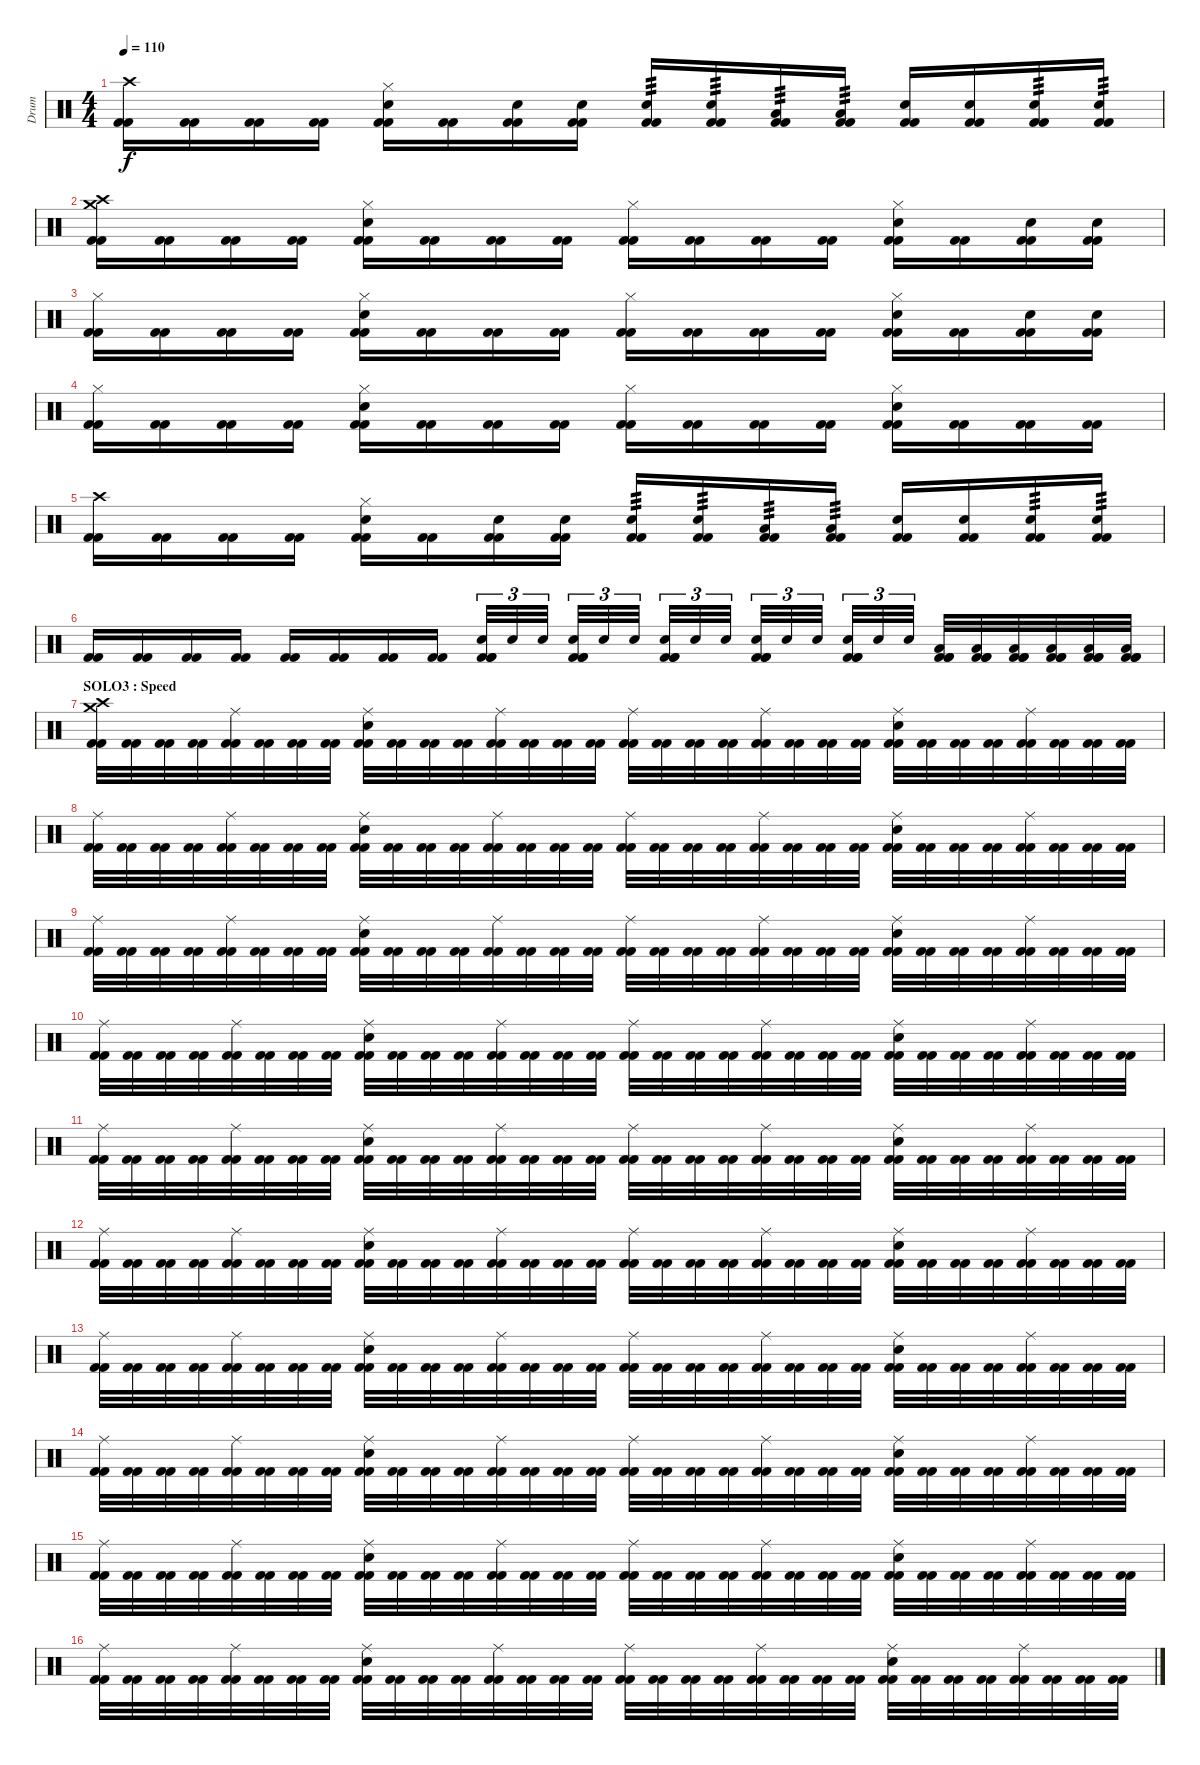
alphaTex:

\track ("Drum" "Drum") {instrument percussion}
\staff {score}
\articulation defaults
\ts (4 4)
\tempo 110
\clef neutral
\ks c
("Kick (hit) 2" "Kick (hit) 2" "Crash high (hit)").16{dy f} ("Kick (hit) 2" "Kick (hit) 2").16 ("Kick (hit) 2" "Kick (hit) 2").16 ("Kick (hit) 2" "Kick (hit) 2").16 ("Kick (hit) 2" "Kick (hit) 2" "Electric Snare (hit)" "Hi-Hat (closed)").16 ("Kick (hit) 2" "Kick (hit) 2").16 ("Kick (hit) 2" "Kick (hit) 2" "Electric Snare (hit)").16 ("Kick (hit) 2" "Kick (hit) 2" "Electric Snare (hit)").16 ("Kick (hit) 2" "Kick (hit) 2" "Electric Snare (hit)").16{tp 3} ("Kick (hit) 2" "Kick (hit) 2" "Electric Snare (hit)").16{tp 3} ("Kick (hit) 2" "Kick (hit) 2" "Low Floor Tom (hit)").16{tp 3} ("Kick (hit) 2" "Kick (hit) 2" "Low Floor Tom (hit)").16{tp 3} ("Kick (hit) 2" "Kick (hit) 2" "Electric Snare (hit)").16 ("Kick (hit) 2" "Kick (hit) 2" "Electric Snare (hit)").16 ("Kick (hit) 2" "Kick (hit) 2" "Electric Snare (hit)").16{tp 3} ("Kick (hit) 2" "Kick (hit) 2" "Electric Snare (hit)").16{tp 3} |
("Kick (hit) 2" "Kick (hit) 2" "Crash high (hit)" "Crash medium (hit)").16 ("Kick (hit) 2" "Kick (hit) 2").16 ("Kick (hit) 2" "Kick (hit) 2").16 ("Kick (hit) 2" "Kick (hit) 2").16 ("Kick (hit) 2" "Kick (hit) 2" "Electric Snare (hit)" "Hi-Hat (closed)").16 ("Kick (hit) 2" "Kick (hit) 2").16 ("Kick (hit) 2" "Kick (hit) 2").16 ("Kick (hit) 2" "Kick (hit) 2").16 ("Kick (hit) 2" "Kick (hit) 2" "Hi-Hat (closed)").16 ("Kick (hit) 2" "Kick (hit) 2").16 ("Kick (hit) 2" "Kick (hit) 2").16 ("Kick (hit) 2" "Kick (hit) 2").16 ("Kick (hit) 2" "Kick (hit) 2" "Electric Snare (hit)" "Hi-Hat (closed)").16 ("Kick (hit) 2" "Kick (hit) 2").16 ("Kick (hit) 2" "Kick (hit) 2" "Electric Snare (hit)").16 ("Kick (hit) 2" "Kick (hit) 2" "Electric Snare (hit)").16 |
("Kick (hit) 2" "Kick (hit) 2" "Hi-Hat (closed)").16 ("Kick (hit) 2" "Kick (hit) 2").16 ("Kick (hit) 2" "Kick (hit) 2").16 ("Kick (hit) 2" "Kick (hit) 2").16 ("Kick (hit) 2" "Kick (hit) 2" "Electric Snare (hit)" "Hi-Hat (closed)").16 ("Kick (hit) 2" "Kick (hit) 2").16 ("Kick (hit) 2" "Kick (hit) 2").16 ("Kick (hit) 2" "Kick (hit) 2").16 ("Kick (hit) 2" "Kick (hit) 2" "Hi-Hat (closed)").16 ("Kick (hit) 2" "Kick (hit) 2").16 ("Kick (hit) 2" "Kick (hit) 2").16 ("Kick (hit) 2" "Kick (hit) 2").16 ("Kick (hit) 2" "Kick (hit) 2" "Electric Snare (hit)" "Hi-Hat (closed)").16 ("Kick (hit) 2" "Kick (hit) 2").16 ("Kick (hit) 2" "Kick (hit) 2" "Electric Snare (hit)").16 ("Kick (hit) 2" "Kick (hit) 2" "Electric Snare (hit)").16 |
("Kick (hit) 2" "Kick (hit) 2" "Hi-Hat (closed)").16 ("Kick (hit) 2" "Kick (hit) 2").16 ("Kick (hit) 2" "Kick (hit) 2").16 ("Kick (hit) 2" "Kick (hit) 2").16 ("Kick (hit) 2" "Kick (hit) 2" "Electric Snare (hit)" "Hi-Hat (closed)").16 ("Kick (hit) 2" "Kick (hit) 2").16 ("Kick (hit) 2" "Kick (hit) 2").16 ("Kick (hit) 2" "Kick (hit) 2").16 ("Kick (hit) 2" "Kick (hit) 2" "Hi-Hat (closed)").16 ("Kick (hit) 2" "Kick (hit) 2").16 ("Kick (hit) 2" "Kick (hit) 2").16 ("Kick (hit) 2" "Kick (hit) 2").16 ("Kick (hit) 2" "Kick (hit) 2" "Electric Snare (hit)" "Hi-Hat (closed)").16 ("Kick (hit) 2" "Kick (hit) 2").16 ("Kick (hit) 2" "Kick (hit) 2").16 ("Kick (hit) 2" "Kick (hit) 2").16 |
("Kick (hit) 2" "Kick (hit) 2" "Crash high (hit)").16 ("Kick (hit) 2" "Kick (hit) 2").16 ("Kick (hit) 2" "Kick (hit) 2").16 ("Kick (hit) 2" "Kick (hit) 2").16 ("Kick (hit) 2" "Kick (hit) 2" "Electric Snare (hit)" "Hi-Hat (closed)").16 ("Kick (hit) 2" "Kick (hit) 2").16 ("Kick (hit) 2" "Kick (hit) 2" "Electric Snare (hit)").16 ("Kick (hit) 2" "Kick (hit) 2" "Electric Snare (hit)").16 ("Kick (hit) 2" "Kick (hit) 2" "Electric Snare (hit)").16{tp 3} ("Kick (hit) 2" "Kick (hit) 2" "Electric Snare (hit)").16{tp 3} ("Kick (hit) 2" "Kick (hit) 2" "Low Floor Tom (hit)").16{tp 3} ("Kick (hit) 2" "Kick (hit) 2" "Low Floor Tom (hit)").16{tp 3} ("Kick (hit) 2" "Kick (hit) 2" "Electric Snare (hit)").16 ("Kick (hit) 2" "Kick (hit) 2" "Electric Snare (hit)").16 ("Kick (hit) 2" "Kick (hit) 2" "Electric Snare (hit)").16{tp 3} ("Kick (hit) 2" "Kick (hit) 2" "Electric Snare (hit)").16{tp 3} |
("Kick (hit) 2" "Kick (hit) 2").16 ("Kick (hit) 2" "Kick (hit) 2").16 ("Kick (hit) 2" "Kick (hit) 2").16 ("Kick (hit) 2" "Kick (hit) 2").16 ("Kick (hit) 2" "Kick (hit) 2").16 ("Kick (hit) 2" "Kick (hit) 2").16 ("Kick (hit) 2" "Kick (hit) 2").16 ("Kick (hit) 2" "Kick (hit) 2").16 ("Kick (hit) 2" "Kick (hit) 2" "Kick (hit) 2" "Electric Snare (hit)").32{tu (3 2)} "Electric Snare (hit)".32{tu (3 2)} "Electric Snare (hit)".32{tu (3 2)} ("Kick (hit) 2" "Kick (hit) 2" "Kick (hit) 2" "Electric Snare (hit)").32{tu (3 2)} "Electric Snare (hit)".32{tu (3 2)} "Electric Snare (hit)".32{tu (3 2)} ("Kick (hit) 2" "Kick (hit) 2" "Kick (hit) 2" "Electric Snare (hit)").32{tu (3 2)} "Electric Snare (hit)".32{tu (3 2)} "Electric Snare (hit)".32{tu (3 2)} ("Kick (hit) 2" "Kick (hit) 2" "Kick (hit) 2" "Electric Snare (hit)").32{tu (3 2)} "Electric Snare (hit)".32{tu (3 2)} "Electric Snare (hit)".32{tu (3 2)} ("Kick (hit) 2" "Kick (hit) 2" "Kick (hit) 2" "Electric Snare (hit)").32{tu (3 2)} "Electric Snare (hit)".32{tu (3 2)} "Electric Snare (hit)".32{tu (3 2)} ("Kick (hit) 2" "Kick (hit) 2" "Kick (hit) 2" "Low Tom (hit)").32 ("Kick (hit) 2" "Kick (hit) 2" "Kick (hit) 2" "Low Tom (hit)").32 ("Kick (hit) 2" "Kick (hit) 2" "Kick (hit) 2" "Low Floor Tom (hit)").32 ("Kick (hit) 2" "Kick (hit) 2" "Kick (hit) 2" "Low Floor Tom (hit)").32 ("Kick (hit) 2" "Kick (hit) 2" "Kick (hit) 2" "Low Floor Tom (hit)").32 ("Kick (hit) 2" "Kick (hit) 2" "Kick (hit) 2" "Low Floor Tom (hit)").32 |
\section ("" "SOLO3 : Speed")
("Kick (hit) 2" "Kick (hit) 2" "Crash medium (hit)" "Crash high (hit)").32 ("Kick (hit) 2" "Kick (hit) 2").32 ("Kick (hit) 2" "Kick (hit) 2").32 ("Kick (hit) 2" "Kick (hit) 2").32 ("Kick (hit) 2" "Kick (hit) 2" "Ride (middle)").32 ("Kick (hit) 2" "Kick (hit) 2").32 ("Kick (hit) 2" "Kick (hit) 2").32 ("Kick (hit) 2" "Kick (hit) 2").32 ("Kick (hit) 2" "Kick (hit) 2" "Electric Snare (hit)" "Ride (middle)").32 ("Kick (hit) 2" "Kick (hit) 2").32 ("Kick (hit) 2" "Kick (hit) 2").32 ("Kick (hit) 2" "Kick (hit) 2").32 ("Kick (hit) 2" "Kick (hit) 2" "Ride (middle)").32 ("Kick (hit) 2" "Kick (hit) 2").32 ("Kick (hit) 2" "Kick (hit) 2").32 ("Kick (hit) 2" "Kick (hit) 2").32 ("Kick (hit) 2" "Kick (hit) 2" "Ride (middle)").32 ("Kick (hit) 2" "Kick (hit) 2").32 ("Kick (hit) 2" "Kick (hit) 2").32 ("Kick (hit) 2" "Kick (hit) 2").32 ("Kick (hit) 2" "Kick (hit) 2" "Ride (middle)").32 ("Kick (hit) 2" "Kick (hit) 2").32 ("Kick (hit) 2" "Kick (hit) 2").32 ("Kick (hit) 2" "Kick (hit) 2").32 ("Kick (hit) 2" "Kick (hit) 2" "Electric Snare (hit)" "Ride (middle)").32 ("Kick (hit) 2" "Kick (hit) 2").32 ("Kick (hit) 2" "Kick (hit) 2").32 ("Kick (hit) 2" "Kick (hit) 2").32 ("Kick (hit) 2" "Kick (hit) 2" "Ride (middle)").32 ("Kick (hit) 2" "Kick (hit) 2").32 ("Kick (hit) 2" "Kick (hit) 2").32 ("Kick (hit) 2" "Kick (hit) 2").32 |
("Kick (hit) 2" "Kick (hit) 2" "Ride (middle)").32 ("Kick (hit) 2" "Kick (hit) 2").32 ("Kick (hit) 2" "Kick (hit) 2").32 ("Kick (hit) 2" "Kick (hit) 2").32 ("Kick (hit) 2" "Kick (hit) 2" "Ride (middle)").32 ("Kick (hit) 2" "Kick (hit) 2").32 ("Kick (hit) 2" "Kick (hit) 2").32 ("Kick (hit) 2" "Kick (hit) 2").32 ("Kick (hit) 2" "Kick (hit) 2" "Electric Snare (hit)" "Ride (middle)").32 ("Kick (hit) 2" "Kick (hit) 2").32 ("Kick (hit) 2" "Kick (hit) 2").32 ("Kick (hit) 2" "Kick (hit) 2").32 ("Kick (hit) 2" "Kick (hit) 2" "Ride (middle)").32 ("Kick (hit) 2" "Kick (hit) 2").32 ("Kick (hit) 2" "Kick (hit) 2").32 ("Kick (hit) 2" "Kick (hit) 2").32 ("Kick (hit) 2" "Kick (hit) 2" "Ride (middle)").32 ("Kick (hit) 2" "Kick (hit) 2").32 ("Kick (hit) 2" "Kick (hit) 2").32 ("Kick (hit) 2" "Kick (hit) 2").32 ("Kick (hit) 2" "Kick (hit) 2" "Ride (middle)").32 ("Kick (hit) 2" "Kick (hit) 2").32 ("Kick (hit) 2" "Kick (hit) 2").32 ("Kick (hit) 2" "Kick (hit) 2").32 ("Kick (hit) 2" "Kick (hit) 2" "Electric Snare (hit)" "Ride (middle)").32 ("Kick (hit) 2" "Kick (hit) 2").32 ("Kick (hit) 2" "Kick (hit) 2").32 ("Kick (hit) 2" "Kick (hit) 2").32 ("Kick (hit) 2" "Kick (hit) 2" "Ride (middle)").32 ("Kick (hit) 2" "Kick (hit) 2").32 ("Kick (hit) 2" "Kick (hit) 2").32 ("Kick (hit) 2" "Kick (hit) 2").32 |
("Kick (hit) 2" "Kick (hit) 2" "Ride (middle)").32 ("Kick (hit) 2" "Kick (hit) 2").32 ("Kick (hit) 2" "Kick (hit) 2").32 ("Kick (hit) 2" "Kick (hit) 2").32 ("Kick (hit) 2" "Kick (hit) 2" "Ride (middle)").32 ("Kick (hit) 2" "Kick (hit) 2").32 ("Kick (hit) 2" "Kick (hit) 2").32 ("Kick (hit) 2" "Kick (hit) 2").32 ("Kick (hit) 2" "Kick (hit) 2" "Electric Snare (hit)" "Ride (middle)").32 ("Kick (hit) 2" "Kick (hit) 2").32 ("Kick (hit) 2" "Kick (hit) 2").32 ("Kick (hit) 2" "Kick (hit) 2").32 ("Kick (hit) 2" "Kick (hit) 2" "Ride (middle)").32 ("Kick (hit) 2" "Kick (hit) 2").32 ("Kick (hit) 2" "Kick (hit) 2").32 ("Kick (hit) 2" "Kick (hit) 2").32 ("Kick (hit) 2" "Kick (hit) 2" "Ride (middle)").32 ("Kick (hit) 2" "Kick (hit) 2").32 ("Kick (hit) 2" "Kick (hit) 2").32 ("Kick (hit) 2" "Kick (hit) 2").32 ("Kick (hit) 2" "Kick (hit) 2" "Ride (middle)").32 ("Kick (hit) 2" "Kick (hit) 2").32 ("Kick (hit) 2" "Kick (hit) 2").32 ("Kick (hit) 2" "Kick (hit) 2").32 ("Kick (hit) 2" "Kick (hit) 2" "Electric Snare (hit)" "Ride (middle)").32 ("Kick (hit) 2" "Kick (hit) 2").32 ("Kick (hit) 2" "Kick (hit) 2").32 ("Kick (hit) 2" "Kick (hit) 2").32 ("Kick (hit) 2" "Kick (hit) 2" "Ride (middle)").32 ("Kick (hit) 2" "Kick (hit) 2").32 ("Kick (hit) 2" "Kick (hit) 2").32 ("Kick (hit) 2" "Kick (hit) 2").32 |
("Kick (hit) 2" "Kick (hit) 2" "Ride (middle)").32 ("Kick (hit) 2" "Kick (hit) 2").32 ("Kick (hit) 2" "Kick (hit) 2").32 ("Kick (hit) 2" "Kick (hit) 2").32 ("Kick (hit) 2" "Kick (hit) 2" "Ride (middle)").32 ("Kick (hit) 2" "Kick (hit) 2").32 ("Kick (hit) 2" "Kick (hit) 2").32 ("Kick (hit) 2" "Kick (hit) 2").32 ("Kick (hit) 2" "Kick (hit) 2" "Electric Snare (hit)" "Ride (middle)").32 ("Kick (hit) 2" "Kick (hit) 2").32 ("Kick (hit) 2" "Kick (hit) 2").32 ("Kick (hit) 2" "Kick (hit) 2").32 ("Kick (hit) 2" "Kick (hit) 2" "Ride (middle)").32 ("Kick (hit) 2" "Kick (hit) 2").32 ("Kick (hit) 2" "Kick (hit) 2").32 ("Kick (hit) 2" "Kick (hit) 2").32 ("Kick (hit) 2" "Kick (hit) 2" "Ride (middle)").32 ("Kick (hit) 2" "Kick (hit) 2").32 ("Kick (hit) 2" "Kick (hit) 2").32 ("Kick (hit) 2" "Kick (hit) 2").32 ("Kick (hit) 2" "Kick (hit) 2" "Ride (middle)").32 ("Kick (hit) 2" "Kick (hit) 2").32 ("Kick (hit) 2" "Kick (hit) 2").32 ("Kick (hit) 2" "Kick (hit) 2").32 ("Kick (hit) 2" "Kick (hit) 2" "Electric Snare (hit)" "Ride (middle)").32 ("Kick (hit) 2" "Kick (hit) 2").32 ("Kick (hit) 2" "Kick (hit) 2").32 ("Kick (hit) 2" "Kick (hit) 2").32 ("Kick (hit) 2" "Kick (hit) 2" "Ride (middle)").32 ("Kick (hit) 2" "Kick (hit) 2").32 ("Kick (hit) 2" "Kick (hit) 2").32 ("Kick (hit) 2" "Kick (hit) 2").32 |
("Kick (hit) 2" "Kick (hit) 2" "Ride (middle)").32 ("Kick (hit) 2" "Kick (hit) 2").32 ("Kick (hit) 2" "Kick (hit) 2").32 ("Kick (hit) 2" "Kick (hit) 2").32 ("Kick (hit) 2" "Kick (hit) 2" "Ride (middle)").32 ("Kick (hit) 2" "Kick (hit) 2").32 ("Kick (hit) 2" "Kick (hit) 2").32 ("Kick (hit) 2" "Kick (hit) 2").32 ("Kick (hit) 2" "Kick (hit) 2" "Electric Snare (hit)" "Ride (middle)").32 ("Kick (hit) 2" "Kick (hit) 2").32 ("Kick (hit) 2" "Kick (hit) 2").32 ("Kick (hit) 2" "Kick (hit) 2").32 ("Kick (hit) 2" "Kick (hit) 2" "Ride (middle)").32 ("Kick (hit) 2" "Kick (hit) 2").32 ("Kick (hit) 2" "Kick (hit) 2").32 ("Kick (hit) 2" "Kick (hit) 2").32 ("Kick (hit) 2" "Kick (hit) 2" "Ride (middle)").32 ("Kick (hit) 2" "Kick (hit) 2").32 ("Kick (hit) 2" "Kick (hit) 2").32 ("Kick (hit) 2" "Kick (hit) 2").32 ("Kick (hit) 2" "Kick (hit) 2" "Ride (middle)").32 ("Kick (hit) 2" "Kick (hit) 2").32 ("Kick (hit) 2" "Kick (hit) 2").32 ("Kick (hit) 2" "Kick (hit) 2").32 ("Kick (hit) 2" "Kick (hit) 2" "Electric Snare (hit)" "Ride (middle)").32 ("Kick (hit) 2" "Kick (hit) 2").32 ("Kick (hit) 2" "Kick (hit) 2").32 ("Kick (hit) 2" "Kick (hit) 2").32 ("Kick (hit) 2" "Kick (hit) 2" "Ride (middle)").32 ("Kick (hit) 2" "Kick (hit) 2").32 ("Kick (hit) 2" "Kick (hit) 2").32 ("Kick (hit) 2" "Kick (hit) 2").32 |
("Kick (hit) 2" "Kick (hit) 2" "Ride (middle)").32 ("Kick (hit) 2" "Kick (hit) 2").32 ("Kick (hit) 2" "Kick (hit) 2").32 ("Kick (hit) 2" "Kick (hit) 2").32 ("Kick (hit) 2" "Kick (hit) 2" "Ride (middle)").32 ("Kick (hit) 2" "Kick (hit) 2").32 ("Kick (hit) 2" "Kick (hit) 2").32 ("Kick (hit) 2" "Kick (hit) 2").32 ("Kick (hit) 2" "Kick (hit) 2" "Electric Snare (hit)" "Ride (middle)").32 ("Kick (hit) 2" "Kick (hit) 2").32 ("Kick (hit) 2" "Kick (hit) 2").32 ("Kick (hit) 2" "Kick (hit) 2").32 ("Kick (hit) 2" "Kick (hit) 2" "Ride (middle)").32 ("Kick (hit) 2" "Kick (hit) 2").32 ("Kick (hit) 2" "Kick (hit) 2").32 ("Kick (hit) 2" "Kick (hit) 2").32 ("Kick (hit) 2" "Kick (hit) 2" "Ride (middle)").32 ("Kick (hit) 2" "Kick (hit) 2").32 ("Kick (hit) 2" "Kick (hit) 2").32 ("Kick (hit) 2" "Kick (hit) 2").32 ("Kick (hit) 2" "Kick (hit) 2" "Ride (middle)").32 ("Kick (hit) 2" "Kick (hit) 2").32 ("Kick (hit) 2" "Kick (hit) 2").32 ("Kick (hit) 2" "Kick (hit) 2").32 ("Kick (hit) 2" "Kick (hit) 2" "Electric Snare (hit)" "Ride (middle)").32 ("Kick (hit) 2" "Kick (hit) 2").32 ("Kick (hit) 2" "Kick (hit) 2").32 ("Kick (hit) 2" "Kick (hit) 2").32 ("Kick (hit) 2" "Kick (hit) 2" "Ride (middle)").32 ("Kick (hit) 2" "Kick (hit) 2").32 ("Kick (hit) 2" "Kick (hit) 2").32 ("Kick (hit) 2" "Kick (hit) 2").32 |
("Kick (hit) 2" "Kick (hit) 2" "Ride (middle)").32 ("Kick (hit) 2" "Kick (hit) 2").32 ("Kick (hit) 2" "Kick (hit) 2").32 ("Kick (hit) 2" "Kick (hit) 2").32 ("Kick (hit) 2" "Kick (hit) 2" "Ride (middle)").32 ("Kick (hit) 2" "Kick (hit) 2").32 ("Kick (hit) 2" "Kick (hit) 2").32 ("Kick (hit) 2" "Kick (hit) 2").32 ("Kick (hit) 2" "Kick (hit) 2" "Electric Snare (hit)" "Ride (middle)").32 ("Kick (hit) 2" "Kick (hit) 2").32 ("Kick (hit) 2" "Kick (hit) 2").32 ("Kick (hit) 2" "Kick (hit) 2").32 ("Kick (hit) 2" "Kick (hit) 2" "Ride (middle)").32 ("Kick (hit) 2" "Kick (hit) 2").32 ("Kick (hit) 2" "Kick (hit) 2").32 ("Kick (hit) 2" "Kick (hit) 2").32 ("Kick (hit) 2" "Kick (hit) 2" "Ride (middle)").32 ("Kick (hit) 2" "Kick (hit) 2").32 ("Kick (hit) 2" "Kick (hit) 2").32 ("Kick (hit) 2" "Kick (hit) 2").32 ("Kick (hit) 2" "Kick (hit) 2" "Ride (middle)").32 ("Kick (hit) 2" "Kick (hit) 2").32 ("Kick (hit) 2" "Kick (hit) 2").32 ("Kick (hit) 2" "Kick (hit) 2").32 ("Kick (hit) 2" "Kick (hit) 2" "Electric Snare (hit)" "Ride (middle)").32 ("Kick (hit) 2" "Kick (hit) 2").32 ("Kick (hit) 2" "Kick (hit) 2").32 ("Kick (hit) 2" "Kick (hit) 2").32 ("Kick (hit) 2" "Kick (hit) 2" "Ride (middle)").32 ("Kick (hit) 2" "Kick (hit) 2").32 ("Kick (hit) 2" "Kick (hit) 2").32 ("Kick (hit) 2" "Kick (hit) 2").32 |
("Kick (hit) 2" "Kick (hit) 2" "Ride (middle)").32 ("Kick (hit) 2" "Kick (hit) 2").32 ("Kick (hit) 2" "Kick (hit) 2").32 ("Kick (hit) 2" "Kick (hit) 2").32 ("Kick (hit) 2" "Kick (hit) 2" "Ride (middle)").32 ("Kick (hit) 2" "Kick (hit) 2").32 ("Kick (hit) 2" "Kick (hit) 2").32 ("Kick (hit) 2" "Kick (hit) 2").32 ("Kick (hit) 2" "Kick (hit) 2" "Electric Snare (hit)" "Ride (middle)").32 ("Kick (hit) 2" "Kick (hit) 2").32 ("Kick (hit) 2" "Kick (hit) 2").32 ("Kick (hit) 2" "Kick (hit) 2").32 ("Kick (hit) 2" "Kick (hit) 2" "Ride (middle)").32 ("Kick (hit) 2" "Kick (hit) 2").32 ("Kick (hit) 2" "Kick (hit) 2").32 ("Kick (hit) 2" "Kick (hit) 2").32 ("Kick (hit) 2" "Kick (hit) 2" "Ride (middle)").32 ("Kick (hit) 2" "Kick (hit) 2").32 ("Kick (hit) 2" "Kick (hit) 2").32 ("Kick (hit) 2" "Kick (hit) 2").32 ("Kick (hit) 2" "Kick (hit) 2" "Ride (middle)").32 ("Kick (hit) 2" "Kick (hit) 2").32 ("Kick (hit) 2" "Kick (hit) 2").32 ("Kick (hit) 2" "Kick (hit) 2").32 ("Kick (hit) 2" "Kick (hit) 2" "Electric Snare (hit)" "Ride (middle)").32 ("Kick (hit) 2" "Kick (hit) 2").32 ("Kick (hit) 2" "Kick (hit) 2").32 ("Kick (hit) 2" "Kick (hit) 2").32 ("Kick (hit) 2" "Kick (hit) 2" "Ride (middle)").32 ("Kick (hit) 2" "Kick (hit) 2").32 ("Kick (hit) 2" "Kick (hit) 2").32 ("Kick (hit) 2" "Kick (hit) 2").32 |
("Kick (hit) 2" "Kick (hit) 2" "Ride (middle)").32 ("Kick (hit) 2" "Kick (hit) 2").32 ("Kick (hit) 2" "Kick (hit) 2").32 ("Kick (hit) 2" "Kick (hit) 2").32 ("Kick (hit) 2" "Kick (hit) 2" "Ride (middle)").32 ("Kick (hit) 2" "Kick (hit) 2").32 ("Kick (hit) 2" "Kick (hit) 2").32 ("Kick (hit) 2" "Kick (hit) 2").32 ("Kick (hit) 2" "Kick (hit) 2" "Electric Snare (hit)" "Ride (middle)").32 ("Kick (hit) 2" "Kick (hit) 2").32 ("Kick (hit) 2" "Kick (hit) 2").32 ("Kick (hit) 2" "Kick (hit) 2").32 ("Kick (hit) 2" "Kick (hit) 2" "Ride (middle)").32 ("Kick (hit) 2" "Kick (hit) 2").32 ("Kick (hit) 2" "Kick (hit) 2").32 ("Kick (hit) 2" "Kick (hit) 2").32 ("Kick (hit) 2" "Kick (hit) 2" "Ride (middle)").32 ("Kick (hit) 2" "Kick (hit) 2").32 ("Kick (hit) 2" "Kick (hit) 2").32 ("Kick (hit) 2" "Kick (hit) 2").32 ("Kick (hit) 2" "Kick (hit) 2" "Ride (middle)").32 ("Kick (hit) 2" "Kick (hit) 2").32 ("Kick (hit) 2" "Kick (hit) 2").32 ("Kick (hit) 2" "Kick (hit) 2").32 ("Kick (hit) 2" "Kick (hit) 2" "Electric Snare (hit)" "Ride (middle)").32 ("Kick (hit) 2" "Kick (hit) 2").32 ("Kick (hit) 2" "Kick (hit) 2").32 ("Kick (hit) 2" "Kick (hit) 2").32 ("Kick (hit) 2" "Kick (hit) 2" "Ride (middle)").32 ("Kick (hit) 2" "Kick (hit) 2").32 ("Kick (hit) 2" "Kick (hit) 2").32 ("Kick (hit) 2" "Kick (hit) 2").32 |
("Kick (hit) 2" "Kick (hit) 2" "Ride (middle)").32 ("Kick (hit) 2" "Kick (hit) 2").32 ("Kick (hit) 2" "Kick (hit) 2").32 ("Kick (hit) 2" "Kick (hit) 2").32 ("Kick (hit) 2" "Kick (hit) 2" "Ride (middle)").32 ("Kick (hit) 2" "Kick (hit) 2").32 ("Kick (hit) 2" "Kick (hit) 2").32 ("Kick (hit) 2" "Kick (hit) 2").32 ("Kick (hit) 2" "Kick (hit) 2" "Electric Snare (hit)" "Ride (middle)").32 ("Kick (hit) 2" "Kick (hit) 2").32 ("Kick (hit) 2" "Kick (hit) 2").32 ("Kick (hit) 2" "Kick (hit) 2").32 ("Kick (hit) 2" "Kick (hit) 2" "Ride (middle)").32 ("Kick (hit) 2" "Kick (hit) 2").32 ("Kick (hit) 2" "Kick (hit) 2").32 ("Kick (hit) 2" "Kick (hit) 2").32 ("Kick (hit) 2" "Kick (hit) 2" "Ride (middle)").32 ("Kick (hit) 2" "Kick (hit) 2").32 ("Kick (hit) 2" "Kick (hit) 2").32 ("Kick (hit) 2" "Kick (hit) 2").32 ("Kick (hit) 2" "Kick (hit) 2" "Ride (middle)").32 ("Kick (hit) 2" "Kick (hit) 2").32 ("Kick (hit) 2" "Kick (hit) 2").32 ("Kick (hit) 2" "Kick (hit) 2").32 ("Kick (hit) 2" "Kick (hit) 2" "Electric Snare (hit)" "Ride (middle)").32 ("Kick (hit) 2" "Kick (hit) 2").32 ("Kick (hit) 2" "Kick (hit) 2").32 ("Kick (hit) 2" "Kick (hit) 2").32 ("Kick (hit) 2" "Kick (hit) 2" "Ride (middle)").32 ("Kick (hit) 2" "Kick (hit) 2").32 ("Kick (hit) 2" "Kick (hit) 2").32 ("Kick (hit) 2" "Kick (hit) 2").32
